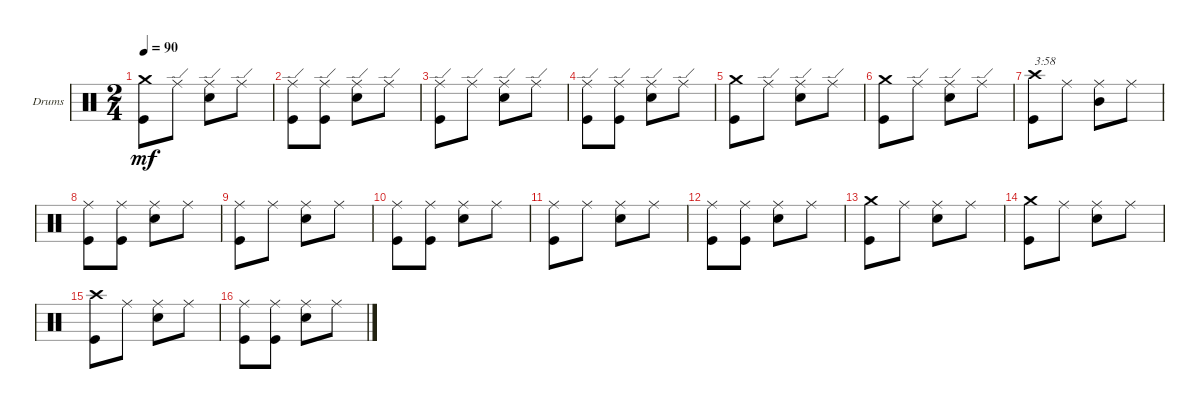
\bracketExtendMode groupsimilarinstruments
\firstSystemTrackNameOrientation horizontal
\otherSystemsTrackNameOrientation horizontal
\track ("Drumkit" "Drums") {instrument percussion}
\staff {score}
\articulation defaults
\ts (2 4)
\tempo 90
\clef neutral
\scale
0.333333
\ks c
("Kick (hit)" "Crash medium (hit)").8{dy mf} "Ride (edge)".8 ("Ride (edge)" "Snare (hit) 2").8 "Ride (edge)".8 |
\scale
0.333333 ("Ride (edge)" "Kick (hit)").8 ("Ride (edge)" "Kick (hit)").8 ("Ride (edge)" "Snare (hit) 2").8 "Ride (edge)".8 |
\scale
0.333333 ("Ride (edge)" "Kick (hit)").8 "Ride (edge)".8 ("Ride (edge)" "Snare (hit) 2").8 "Ride (edge)".8 |
\scale
0.333333 ("Ride (edge)" "Kick (hit)").8 ("Ride (edge)" "Kick (hit)").8 ("Ride (edge)" "Snare (hit) 2").8 "Ride (edge)".8 |
\scale
0.333333 ("Kick (hit)" "Crash medium (hit)").8 "Ride (edge)".8 ("Ride (edge)" "Snare (hit) 2").8 "Ride (edge)".8 |
\scale
0.333333 ("Kick (hit)" "Crash medium (hit)").8 "Ride (edge)".8 ("Ride (edge)" "Snare (hit) 2").8 "Ride (edge)".8 |
\scale
0.333333 ("Crash high (hit)" "Kick (hit)").8{txt "3:58"} "Ride (middle)".8 ("Ride (middle)" "Mid Tom (hit)").8 "Ride (middle)".8 |
\scale
0.333333 ("Ride (middle)" "Kick (hit)").8 ("Ride (middle)" "Kick (hit)").8 ("Ride (middle)" "Snare (hit) 2").8 "Ride (middle)".8 |
\scale
0.333333 ("Ride (middle)" "Kick (hit)").8 "Ride (middle)".8 ("Ride (middle)" "Snare (hit) 2").8 "Ride (middle)".8 |
\scale
0.333333 ("Ride (middle)" "Kick (hit)").8 ("Ride (middle)" "Kick (hit)").8 ("Ride (middle)" "Snare (hit) 2").8 "Ride (middle)".8 |
\scale
0.333333 ("Ride (middle)" "Kick (hit)").8 "Ride (middle)".8 ("Ride (middle)" "Snare (hit) 2").8 "Ride (middle)".8 |
\scale
0.333333 ("Ride (middle)" "Kick (hit)").8 ("Ride (middle)" "Kick (hit)").8 ("Ride (middle)" "Snare (hit) 2").8 "Ride (middle)".8 |
\scale
0.333333 ("Crash medium (hit)" "Kick (hit)").8 "Ride (middle)".8 ("Ride (middle)" "Snare (hit) 2").8 "Ride (middle)".8 |
\scale
0.333333 ("Crash medium (hit)" "Kick (hit)").8 "Ride (middle)".8 ("Ride (middle)" "Snare (hit) 2").8 "Ride (middle)".8 |
\scale
0.333333 ("Crash high (hit)" "Kick (hit)").8 "Ride (middle)".8 ("Ride (middle)" "Snare (hit) 2").8 "Ride (middle)".8 |
\scale
0.333333 ("Ride (middle)" "Kick (hit)").8 ("Ride (middle)" "Kick (hit)").8 ("Ride (middle)" "Snare (hit) 2").8 "Ride (middle)".8
